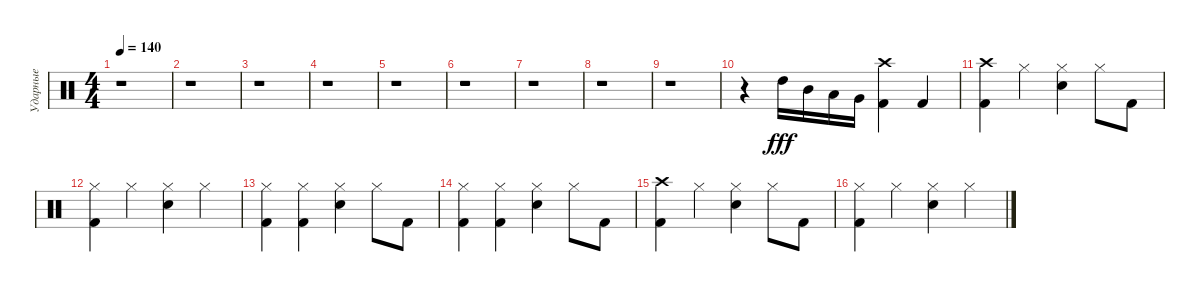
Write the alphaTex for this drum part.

\track ("Ударные" "Ударные") {instrument percussion}
\staff {score}
\articulation defaults
\ts (4 4)
\tempo 140
\clef neutral
\ks c
r.1{dy fff} |
r.1 |
r.1 |
r.1 |
r.1 |
r.1 |
r.1 |
r.1 |
r.1 |
r.4 "High Tom (hit)".16 "Mid Tom (hit)".16 "Low Tom (hit)".16 "Very Low Tom (hit)".16 ("Crash high (hit)" "Kick (hit) 2").4 "Kick (hit) 2".4 |
("Kick (hit) 2" "Crash high (hit)").4 "Hi-Hat (closed)".4 ("Electric Snare (hit)" "Hi-Hat (closed)").4 "Hi-Hat (closed)".8 "Kick (hit) 2".8 |
("Kick (hit) 2" "Hi-Hat (closed)").4 "Hi-Hat (closed)".4 ("Electric Snare (hit)" "Hi-Hat (closed)").4 "Hi-Hat (closed)".4 |
("Hi-Hat (closed)" "Kick (hit) 2").4 ("Kick (hit) 2" "Hi-Hat (closed)").4 ("Electric Snare (hit)" "Hi-Hat (closed)").4 "Hi-Hat (closed)".8 "Kick (hit) 2".8 |
("Hi-Hat (closed)" "Kick (hit) 2").4 ("Kick (hit) 2" "Hi-Hat (closed)").4 ("Electric Snare (hit)" "Hi-Hat (closed)").4 "Hi-Hat (closed)".8 "Kick (hit) 2".8 |
("Kick (hit) 2" "Crash high (hit)").4 "Hi-Hat (closed)".4 ("Electric Snare (hit)" "Hi-Hat (closed)").4 "Hi-Hat (closed)".8 "Kick (hit) 2".8 |
("Kick (hit) 2" "Hi-Hat (closed)").4 "Hi-Hat (closed)".4 ("Electric Snare (hit)" "Hi-Hat (closed)").4 "Hi-Hat (closed)".4
